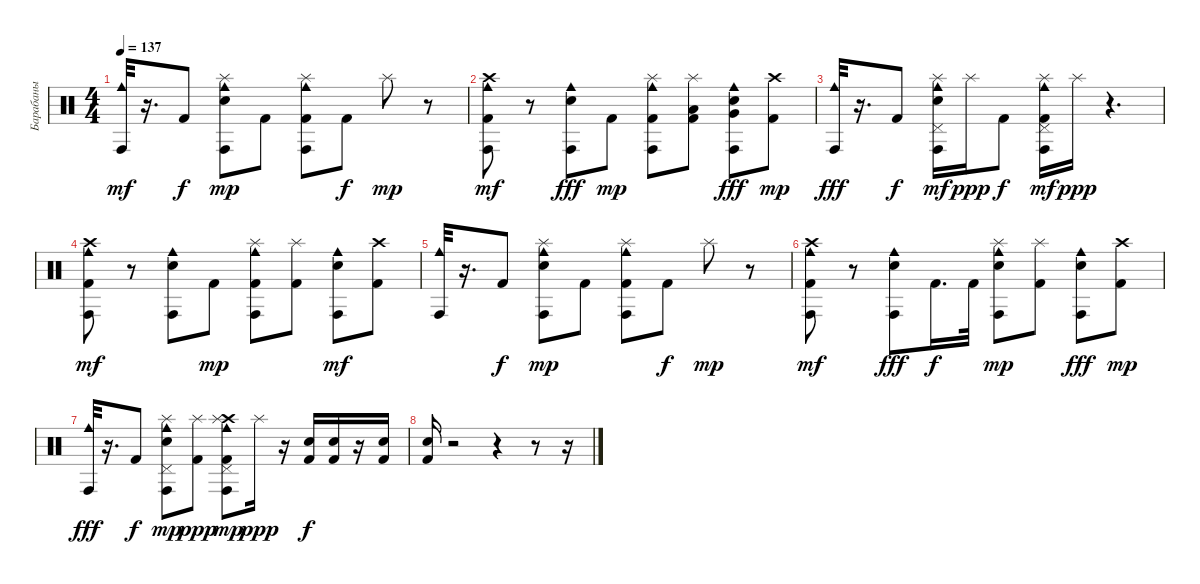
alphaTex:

\track ("Барабаны" "Барабаны") {instrument percussion}
\staff {score}
\articulation defaults
\ts (4 4)
\tempo 137
\clef neutral
\ks c
("Cowbell medium (hit)" "Conga high (hit)").32{dy mf} r.16{d} "Kick (hit) 2".8{dy f} ("Cowbell medium (hit)" "Conga high (hit)" "Splash (hit)" "Electric Snare (hit)").8{dy mp} "Kick (hit) 2".8 ("Cowbell medium (hit)" "Conga high (hit)" "Splash (hit)" "Kick (hit) 2").8 "Kick (hit) 2".8{dy f} "Splash (hit)".8{dy mp} r.8 |
("Conga high (hit)" "Cowbell medium (hit)" "Crash high (hit)" "Kick (hit) 2").8{dy mf} r.8 ("Conga high (hit)" "Cowbell medium (hit)" "Electric Snare (hit)").8{dy fff} "Kick (hit) 2".8{dy mp} ("Conga high (hit)" "Cowbell medium (hit)" "Splash (hit)" "Kick (hit) 2").8 ("Splash (hit)" "Low Tom (hit)" "Kick (hit) 2").8 ("Conga high (hit)" "Cowbell medium (hit)" "Very Low Tom (hit)" "Electric Snare (hit)").8{dy fff} ("Crash high (hit)" "Kick (hit) 2").8{dy mp} |
("Conga high (hit)" "Cowbell medium (hit)").32{dy fff} r.16{d} "Kick (hit) 2".8{dy f} ("Conga high (hit)" "Cowbell medium (hit)" "Splash (hit)" "Pedal Hi-Hat (hit)" "Electric Snare (hit)").16{dy mf} "Splash (hit)".16{dy ppp} "Kick (hit) 2".8{dy f} ("Conga high (hit)" "Cowbell medium (hit)" "Splash (hit)" "Pedal Hi-Hat (hit)" "Kick (hit) 2").16{dy mf} "Splash (hit)".16{dy ppp} r.4{d} |
("Cowbell medium (hit)" "Conga high (hit)" "Crash high (hit)" "Kick (hit) 2").8{dy mf} r.8 ("Cowbell medium (hit)" "Conga high (hit)" "Electric Snare (hit)").8 "Kick (hit) 2".8{dy mp} ("Cowbell medium (hit)" "Conga high (hit)" "Splash (hit)" "Kick (hit) 2").8 ("Splash (hit)" "Kick (hit) 2").8 ("Cowbell medium (hit)" "Conga high (hit)" "Electric Snare (hit)").8{dy mf} ("Crash high (hit)" "Kick (hit) 2").8 |
("Cowbell medium (hit)" "Conga high (hit)").32 r.16{d} "Kick (hit) 2".8{dy f} ("Cowbell medium (hit)" "Conga high (hit)" "Splash (hit)" "Electric Snare (hit)").8{dy mp} "Kick (hit) 2".8 ("Cowbell medium (hit)" "Conga high (hit)" "Splash (hit)" "Kick (hit) 2").8 "Kick (hit) 2".8{dy f} "Splash (hit)".8{dy mp} r.8 |
("Conga high (hit)" "Cowbell medium (hit)" "Crash high (hit)" "Kick (hit) 2").8{dy mf} r.8 ("Conga high (hit)" "Cowbell medium (hit)" "Electric Snare (hit)").8{dy fff} "Kick (hit) 2".16{d dy f} "Kick (hit) 2".32 ("Conga high (hit)" "Cowbell medium (hit)" "Electric Snare (hit)" "Splash (hit)").8{dy mp} ("Splash (hit)" "Kick (hit) 2").8 ("Conga high (hit)" "Cowbell medium (hit)" "Electric Snare (hit)").8{dy fff} ("Crash high (hit)" "Kick (hit) 2").8{dy mp} |
("Conga high (hit)" "Cowbell medium (hit)").32{dy fff} r.16{d} "Kick (hit) 2".8{dy f} ("Conga high (hit)" "Cowbell medium (hit)" "Splash (hit)" "Pedal Hi-Hat (hit)" "Electric Snare (hit)").8{dy mp} ("Splash (hit)" "Kick (hit) 2").8{dy ppp} ("Crash high (hit)" "Conga high (hit)" "Cowbell medium (hit)" "Splash (hit)" "Pedal Hi-Hat (hit)" "Kick (hit) 2").8{dy mp} "Splash (hit)".16{dy ppp} r.16 ("Kick (hit) 2" "Electric Snare (hit)").16{dy f} ("Kick (hit) 2" "Electric Snare (hit)").16 r.16 ("Kick (hit) 2" "Electric Snare (hit)").16 |
("Kick (hit) 2" "Electric Snare (hit)").16 r.2 r.4 r.8 r.16
